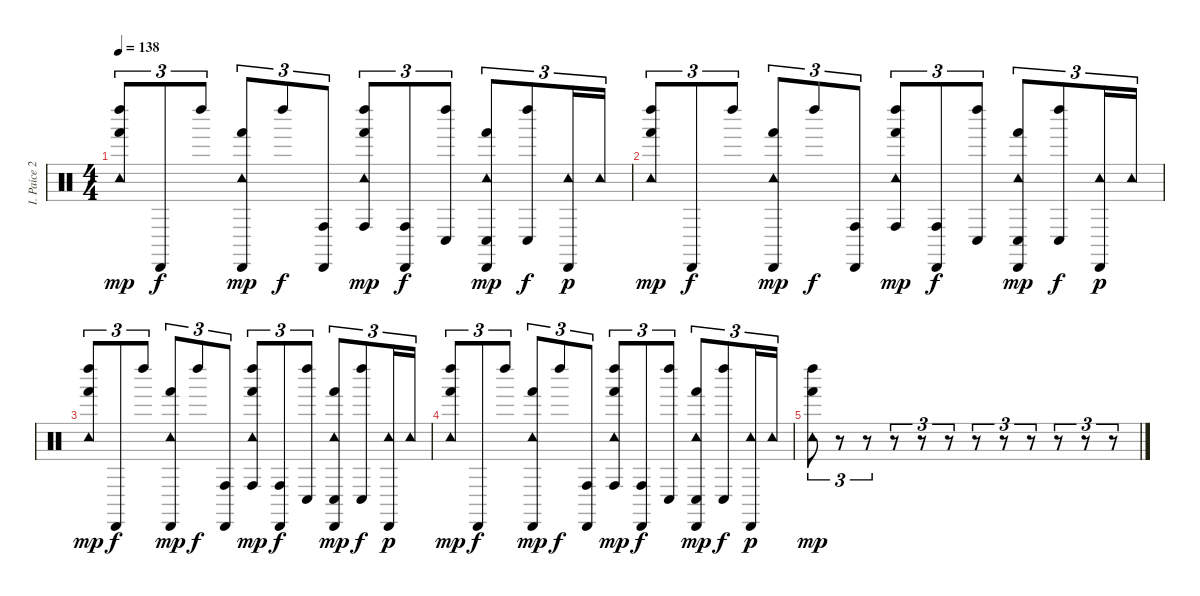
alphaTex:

\track ("I. Paice 2" "I. Paice 2") {instrument percussion}
\staff {score}
\articulation defaults
\ts (4 4)
\tempo 138
\clef neutral
\ks c
("Tambourine (hit)" "Left Maraca (hit)" "Hand (hit)").8{tu (3 2) dy mp} "Cabasa (hit)".8{tu (3 2) dy f} "Left Maraca (hit)".8{tu (3 2)} ("Tambourine (hit)" "Cabasa (hit)" "Hand (hit)").8{tu (3 2) dy mp} "Left Maraca (hit)".8{tu (3 2) dy f} ("Cabasa (hit)" "Conga high (hit)").8{tu (3 2)} ("Tambourine (hit)" "Left Maraca (hit)" "Hand (hit)" "Conga high (hit)").8{tu (3 2) dy mp} ("Cabasa (hit)" "Conga high (hit)").8{tu (3 2) dy f} ("Left Maraca (hit)" "Conga low (hit)").8{tu (3 2)} ("Tambourine (hit)" "Cabasa (hit)" "Hand (hit)" "Conga low (hit)").8{tu (3 2) dy mp} ("Left Maraca (hit)" "Conga low (hit)").8{tu (3 2) dy f} ("Tambourine (hit)" "Cabasa (hit)").16{tu (3 2) dy p} "Tambourine (hit)".16{tu (3 2)} |
("Tambourine (hit)" "Left Maraca (hit)" "Hand (hit)").8{tu (3 2) dy mp} "Cabasa (hit)".8{tu (3 2) dy f} "Left Maraca (hit)".8{tu (3 2)} ("Tambourine (hit)" "Cabasa (hit)" "Hand (hit)").8{tu (3 2) dy mp} "Left Maraca (hit)".8{tu (3 2) dy f} ("Cabasa (hit)" "Conga high (hit)").8{tu (3 2)} ("Tambourine (hit)" "Left Maraca (hit)" "Hand (hit)" "Conga high (hit)").8{tu (3 2) dy mp} ("Cabasa (hit)" "Conga high (hit)").8{tu (3 2) dy f} ("Left Maraca (hit)" "Conga low (hit)").8{tu (3 2)} ("Tambourine (hit)" "Cabasa (hit)" "Hand (hit)" "Conga low (hit)").8{tu (3 2) dy mp} ("Left Maraca (hit)" "Conga low (hit)").8{tu (3 2) dy f} ("Tambourine (hit)" "Cabasa (hit)").16{tu (3 2) dy p} "Tambourine (hit)".16{tu (3 2)} |
("Tambourine (hit)" "Left Maraca (hit)" "Hand (hit)").8{tu (3 2) dy mp} "Cabasa (hit)".8{tu (3 2) dy f} "Left Maraca (hit)".8{tu (3 2)} ("Tambourine (hit)" "Cabasa (hit)" "Hand (hit)").8{tu (3 2) dy mp} "Left Maraca (hit)".8{tu (3 2) dy f} ("Cabasa (hit)" "Conga high (hit)").8{tu (3 2)} ("Tambourine (hit)" "Left Maraca (hit)" "Hand (hit)" "Conga high (hit)").8{tu (3 2) dy mp} ("Cabasa (hit)" "Conga high (hit)").8{tu (3 2) dy f} ("Left Maraca (hit)" "Conga low (hit)").8{tu (3 2)} ("Tambourine (hit)" "Cabasa (hit)" "Hand (hit)" "Conga low (hit)").8{tu (3 2) dy mp} ("Left Maraca (hit)" "Conga low (hit)").8{tu (3 2) dy f} ("Tambourine (hit)" "Cabasa (hit)").16{tu (3 2) dy p} "Tambourine (hit)".16{tu (3 2)} |
("Tambourine (hit)" "Left Maraca (hit)" "Hand (hit)").8{tu (3 2) dy mp} "Cabasa (hit)".8{tu (3 2) dy f} "Left Maraca (hit)".8{tu (3 2)} ("Tambourine (hit)" "Cabasa (hit)" "Hand (hit)").8{tu (3 2) dy mp} "Left Maraca (hit)".8{tu (3 2) dy f} ("Cabasa (hit)" "Conga high (hit)").8{tu (3 2)} ("Tambourine (hit)" "Left Maraca (hit)" "Hand (hit)" "Conga high (hit)").8{tu (3 2) dy mp} ("Cabasa (hit)" "Conga high (hit)").8{tu (3 2) dy f} ("Left Maraca (hit)" "Conga low (hit)").8{tu (3 2)} ("Tambourine (hit)" "Cabasa (hit)" "Hand (hit)" "Conga low (hit)").8{tu (3 2) dy mp} ("Left Maraca (hit)" "Conga low (hit)").8{tu (3 2) dy f} ("Tambourine (hit)" "Cabasa (hit)").16{tu (3 2) dy p} "Tambourine (hit)".16{tu (3 2)} |
("Tambourine (hit)" "Left Maraca (hit)" "Hand (hit)").8{tu (3 2) dy mp} r.8{tu (3 2)} r.8{tu (3 2)} r.8{tu (3 2)} r.8{tu (3 2)} r.8{tu (3 2)} r.8{tu (3 2)} r.8{tu (3 2)} r.8{tu (3 2)} r.8{tu (3 2)} r.8{tu (3 2)} r.8{tu (3 2)}
